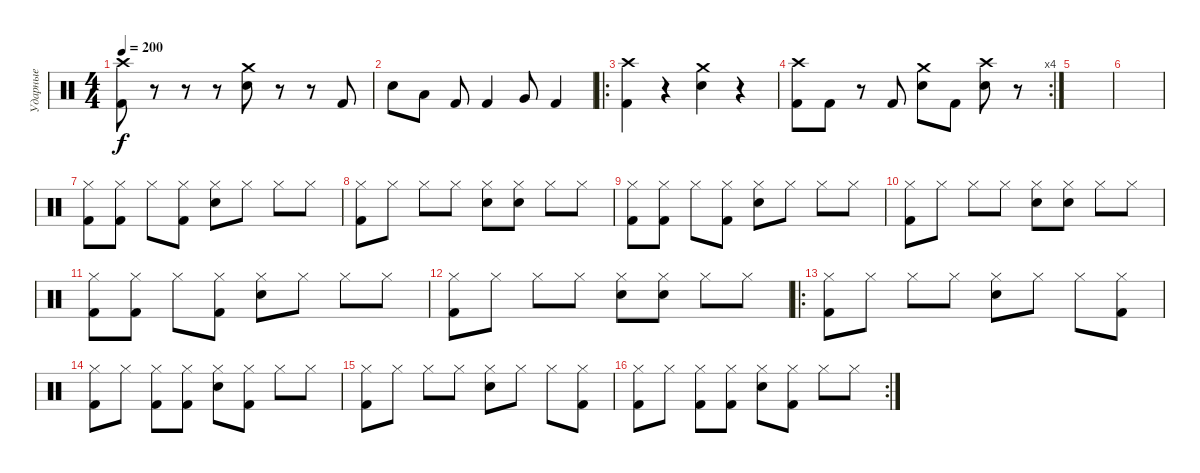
\track ("Ударные" "Ударные") {instrument percussion}
\staff {score}
\articulation defaults
\ts (4 4)
\tempo 200
\clef neutral
\ks c
("Crash high (hit)" "Kick (hit) 2").8{dy f} r.8 r.8 r.8 ("Crash medium (hit)" "Electric Snare (hit)").8 r.8 r.8 "Kick (hit) 2".8 |
"Electric Snare (hit)".8 "Low Tom (hit)".8 "Kick (hit) 2".8 "Kick (hit) 2".4 "Very Low Tom (hit)".8 "Kick (hit) 2".4 |
\ro
("Crash high (hit)" "Kick (hit) 2").4 r.4 ("Crash medium (hit)" "Electric Snare (hit)").4 r.4 |
\rc 4
("Crash high (hit)" "Kick (hit) 2").8 "Kick (hit) 2".8 r.8 "Kick (hit) 2".8 ("Crash medium (hit)" "Electric Snare (hit)").8 "Kick (hit) 2".8 ("Crash high (hit)" "Electric Snare (hit)").8 r.8 |
|
|
("Hi-Hat (closed)" "Kick (hit) 2").8 ("Hi-Hat (closed)" "Kick (hit) 2").8 "Hi-Hat (closed)".8 ("Hi-Hat (closed)" "Kick (hit) 2").8 ("Hi-Hat (closed)" "Electric Snare (hit)").8 "Hi-Hat (closed)".8 "Hi-Hat (closed)".8 "Hi-Hat (closed)".8 |
("Hi-Hat (closed)" "Kick (hit) 2").8 "Hi-Hat (closed)".8 "Hi-Hat (closed)".8 "Hi-Hat (closed)".8 ("Hi-Hat (closed)" "Electric Snare (hit)").8 ("Hi-Hat (closed)" "Electric Snare (hit)").8 "Hi-Hat (closed)".8 "Hi-Hat (closed)".8 |
("Hi-Hat (closed)" "Kick (hit) 2").8 ("Hi-Hat (closed)" "Kick (hit) 2").8 "Hi-Hat (closed)".8 ("Hi-Hat (closed)" "Kick (hit) 2").8 ("Hi-Hat (closed)" "Electric Snare (hit)").8 "Hi-Hat (closed)".8 "Hi-Hat (closed)".8 "Hi-Hat (closed)".8 |
("Hi-Hat (closed)" "Kick (hit) 2").8 "Hi-Hat (closed)".8 "Hi-Hat (closed)".8 "Hi-Hat (closed)".8 ("Hi-Hat (closed)" "Electric Snare (hit)").8 ("Hi-Hat (closed)" "Electric Snare (hit)").8 "Hi-Hat (closed)".8 "Hi-Hat (closed)".8 |
("Hi-Hat (closed)" "Kick (hit) 2").8 ("Hi-Hat (closed)" "Kick (hit) 2").8 "Hi-Hat (closed)".8 ("Hi-Hat (closed)" "Kick (hit) 2").8 ("Hi-Hat (closed)" "Electric Snare (hit)").8 "Hi-Hat (closed)".8 "Hi-Hat (closed)".8 "Hi-Hat (closed)".8 |
("Hi-Hat (closed)" "Kick (hit) 2").8 "Hi-Hat (closed)".8 "Hi-Hat (closed)".8 "Hi-Hat (closed)".8 ("Hi-Hat (closed)" "Electric Snare (hit)").8 ("Hi-Hat (closed)" "Electric Snare (hit)").8 "Hi-Hat (closed)".8 "Hi-Hat (closed)".8 |
\ro
("Hi-Hat (closed)" "Kick (hit) 2").8 "Hi-Hat (closed)".8 "Hi-Hat (closed)".8 "Hi-Hat (closed)".8 ("Hi-Hat (closed)" "Electric Snare (hit)").8 "Hi-Hat (closed)".8 "Hi-Hat (closed)".8 ("Hi-Hat (closed)" "Kick (hit) 2").8 |
("Hi-Hat (closed)" "Kick (hit) 2").8 "Hi-Hat (closed)".8 ("Hi-Hat (closed)" "Kick (hit) 2").8 ("Hi-Hat (closed)" "Kick (hit) 2").8 ("Hi-Hat (closed)" "Electric Snare (hit)").8 ("Hi-Hat (closed)" "Kick (hit) 2").8 "Hi-Hat (closed)".8 "Hi-Hat (closed)".8 |
("Hi-Hat (closed)" "Kick (hit) 2").8 "Hi-Hat (closed)".8 "Hi-Hat (closed)".8 "Hi-Hat (closed)".8 ("Hi-Hat (closed)" "Electric Snare (hit)").8 "Hi-Hat (closed)".8 "Hi-Hat (closed)".8 ("Hi-Hat (closed)" "Kick (hit) 2").8 |
\rc 2
("Hi-Hat (closed)" "Kick (hit) 2").8 "Hi-Hat (closed)".8 ("Hi-Hat (closed)" "Kick (hit) 2").8 ("Hi-Hat (closed)" "Kick (hit) 2").8 ("Hi-Hat (closed)" "Electric Snare (hit)").8 ("Hi-Hat (closed)" "Kick (hit) 2").8 "Hi-Hat (closed)".8 "Hi-Hat (closed)".8
